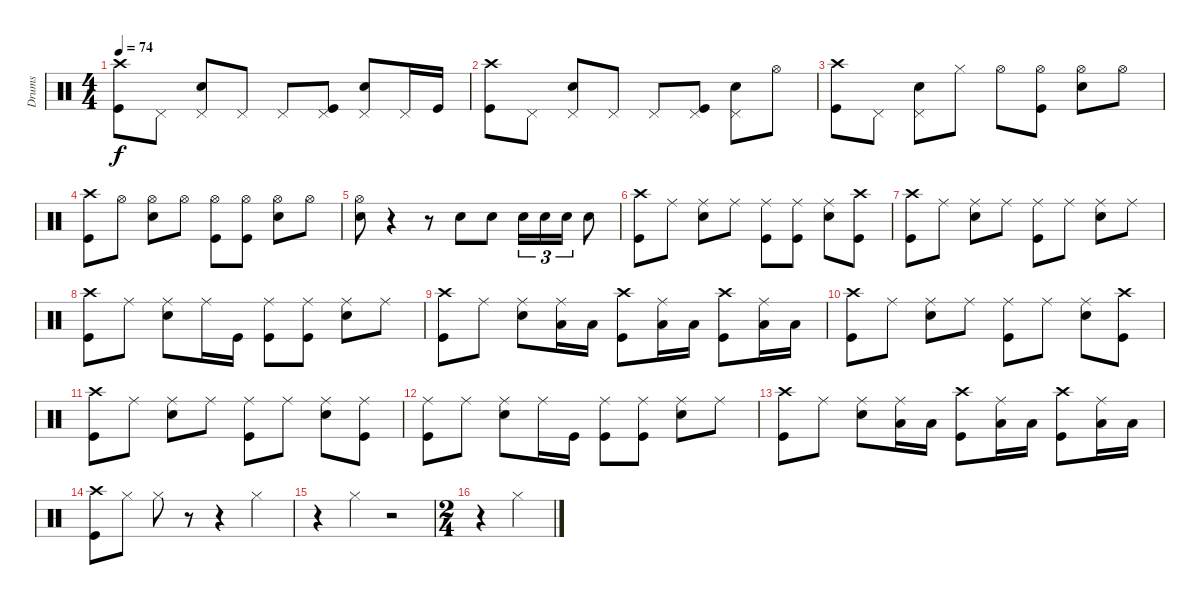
\track ("Drums" "Drums") {instrument percussion}
\staff {score}
\articulation defaults
\ts (4 4)
\tempo 74
\clef neutral
\ks c
("Crash high (hit)" "Kick (hit)").8{dy f} "Pedal Hi-Hat (hit)".8 ("Pedal Hi-Hat (hit)" "Electric Snare (hit)").8 "Pedal Hi-Hat (hit)".8 "Pedal Hi-Hat (hit)".8 ("Pedal Hi-Hat (hit)" "Kick (hit)").8 ("Pedal Hi-Hat (hit)" "Electric Snare (hit)").8 "Pedal Hi-Hat (hit)".16 "Kick (hit)".16 |
("Crash high (hit)" "Kick (hit)").8 "Pedal Hi-Hat (hit)".8 ("Pedal Hi-Hat (hit)" "Electric Snare (hit)").8 "Pedal Hi-Hat (hit)".8 "Pedal Hi-Hat (hit)".8 ("Pedal Hi-Hat (hit)" "Kick (hit)").8 ("Pedal Hi-Hat (hit)" "Electric Snare (hit)").8 "Hi-Hat (open)".8 |
("Crash high (hit)" "Kick (hit)").8 "Pedal Hi-Hat (hit)".8 ("Pedal Hi-Hat (hit)" "Electric Snare (hit)").8 "Hi-Hat (closed)".8 "Hi-Hat (open)".8 ("Hi-Hat (open)" "Kick (hit)").8 ("Hi-Hat (open)" "Electric Snare (hit)").8 "Hi-Hat (open)".8 |
("Crash high (hit)" "Kick (hit)").8 "Hi-Hat (open)".8 ("Hi-Hat (open)" "Electric Snare (hit)").8 "Hi-Hat (open)".8 ("Hi-Hat (open)" "Kick (hit)").8 ("Hi-Hat (open)" "Kick (hit)").8 ("Hi-Hat (open)" "Electric Snare (hit)").8 "Hi-Hat (open)".8 |
("Hi-Hat (open)" "Electric Snare (hit)").8 r.4 r.8 "Electric Snare (hit)".8 "Electric Snare (hit)".8 "Electric Snare (hit)".16{tu (3 2)} "Electric Snare (hit)".16{tu (3 2)} "Electric Snare (hit)".16{tu (3 2)} "Electric Snare (hit)".8 |
("Crash high (hit)" "Kick (hit)").8 "Ride (middle)".8 ("Ride (middle)" "Electric Snare (hit)").8 "Ride (middle)".8 ("Ride (middle)" "Kick (hit)").8 ("Ride (middle)" "Kick (hit)").8 ("Ride (middle)" "Electric Snare (hit)").8 ("Crash high (hit)" "Kick (hit)").8 |
("Crash high (hit)" "Kick (hit)").8 "Ride (middle)".8 ("Ride (middle)" "Electric Snare (hit)").8 "Ride (middle)".8 ("Ride (middle)" "Kick (hit)").8 "Ride (middle)".8 ("Ride (middle)" "Electric Snare (hit)").8 "Ride (middle)".8 |
("Crash high (hit)" "Kick (hit)").8 "Ride (middle)".8 ("Ride (middle)" "Electric Snare (hit)").8 "Ride (middle)".16 "Kick (hit)".16 ("Ride (middle)" "Kick (hit)").8 ("Ride (middle)" "Kick (hit)").8 ("Ride (middle)" "Electric Snare (hit)").8 "Ride (middle)".8 |
("Crash high (hit)" "Kick (hit)").8 "Ride (middle)".8 ("Ride (middle)" "Electric Snare (hit)").8 ("Ride (middle)" "Low Floor Tom (hit)").16 "Low Floor Tom (hit)".16 ("Crash high (hit)" "Kick (hit)").8 ("Ride (middle)" "Low Floor Tom (hit)").16 "Low Floor Tom (hit)".16 ("Crash high (hit)" "Kick (hit)").8 ("Ride (middle)" "Low Floor Tom (hit)").16 "Low Floor Tom (hit)".16 |
("Crash high (hit)" "Kick (hit)").8 "Ride (middle)".8 ("Ride (middle)" "Electric Snare (hit)").8 "Ride (middle)".8 ("Ride (middle)" "Kick (hit)").8 "Ride (middle)".8 ("Ride (middle)" "Electric Snare (hit)").8 ("Crash high (hit)" "Kick (hit)").8 |
("Crash high (hit)" "Kick (hit)").8 "Ride (middle)".8 ("Ride (middle)" "Electric Snare (hit)").8 "Ride (middle)".8 ("Ride (middle)" "Kick (hit)").8 "Ride (middle)".8 ("Ride (middle)" "Electric Snare (hit)").8 ("Ride (middle)" "Kick (hit)").8 |
("Ride (middle)" "Kick (hit)").8 "Ride (middle)".8 ("Ride (middle)" "Electric Snare (hit)").8 "Ride (middle)".16 "Kick (hit)".16 ("Ride (middle)" "Kick (hit)").8 ("Ride (middle)" "Kick (hit)").8 ("Ride (middle)" "Electric Snare (hit)").8 "Ride (middle)".8 |
("Crash high (hit)" "Kick (hit)").8 "Ride (middle)".8 ("Ride (middle)" "Electric Snare (hit)").8 ("Ride (middle)" "Low Floor Tom (hit)").16 "Low Floor Tom (hit)".16 ("Crash high (hit)" "Kick (hit)").8 ("Ride (middle)" "Low Floor Tom (hit)").16 "Low Floor Tom (hit)".16 ("Crash high (hit)" "Kick (hit)").8 ("Ride (middle)" "Low Floor Tom (hit)").16 "Low Floor Tom (hit)".16 |
("Crash high (hit)" "Kick (hit)").8 "Hi-Hat (closed)".8 "Hi-Hat (closed)".8 r.8 r.4 "Hi-Hat (closed)".4 |
r.4 "Hi-Hat (closed)".4 r.2 |
\ts (2 4)
r.4 "Hi-Hat (closed)".4
